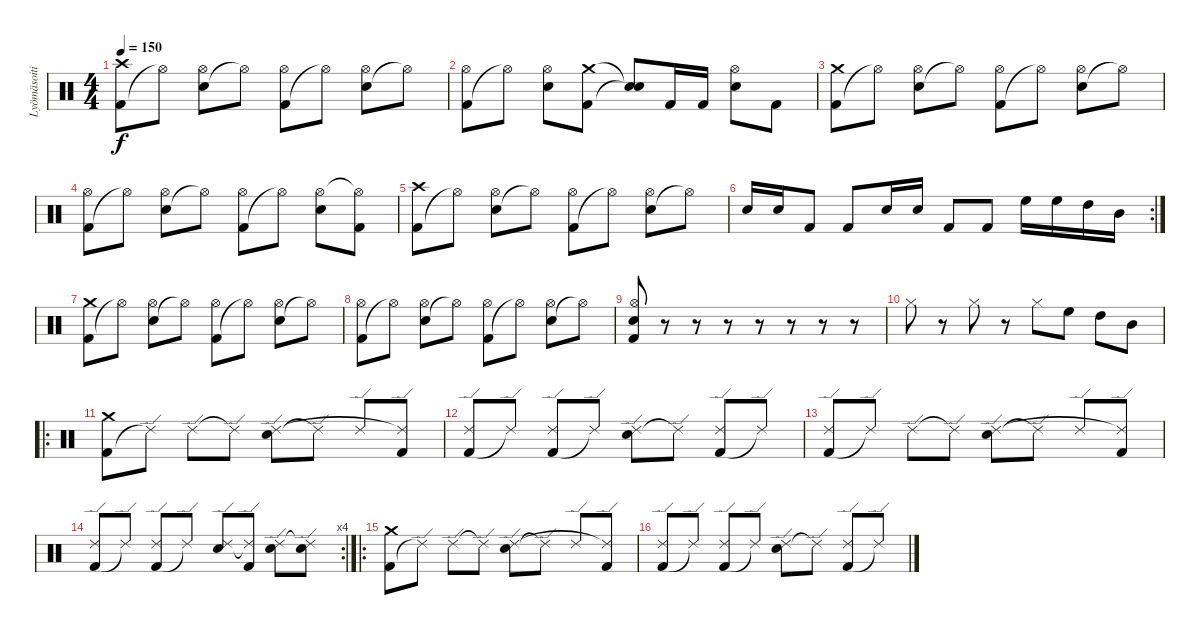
\track ("Lyömäsoitin" "Lyömäsoiti") {instrument percussion}
\staff {score}
\articulation defaults
\ts (4 4)
\tempo 150
\clef neutral
\ks c
("Kick (hit) 2" "Crash high (hit)").8{dy f} "Hi-Hat (open)"{t}.8 ("Electric Snare (hit)" "Hi-Hat (open)").8 "Hi-Hat (open)"{t}.8 ("Kick (hit) 2" "Hi-Hat (open)").8 "Hi-Hat (open)"{t}.8 ("Electric Snare (hit)" "Hi-Hat (open)").8 "Hi-Hat (open)"{t}.8 |
("Kick (hit) 2" "Hi-Hat (open)").8 "Hi-Hat (open)"{t}.8 ("Electric Snare (hit)" "Hi-Hat (open)").8 ("Kick (hit) 2" "Crash medium (hit)").8 ("Snare (hit)"{t} "Snare (hit)"{t}).8 "Kick (hit) 2".16 "Kick (hit) 2".16 ("Electric Snare (hit)" "Hi-Hat (open)").8 "Kick (hit) 2".8 |
("Kick (hit) 2" "Crash medium (hit)").8 "Hi-Hat (open)"{t}.8 ("Electric Snare (hit)" "Hi-Hat (open)").8 "Hi-Hat (open)"{t}.8 ("Kick (hit) 2" "Hi-Hat (open)").8 "Hi-Hat (open)"{t}.8 ("Electric Snare (hit)" "Hi-Hat (open)").8 "Hi-Hat (open)"{t}.8 |
("Kick (hit) 2" "Hi-Hat (open)").8 "Hi-Hat (open)"{t}.8 ("Electric Snare (hit)" "Hi-Hat (open)").8 "Hi-Hat (open)"{t}.8 ("Kick (hit) 2" "Hi-Hat (open)").8 "Hi-Hat (open)"{t}.8 ("Electric Snare (hit)" "Hi-Hat (open)").8 ("Kick (hit) 2" "Hi-Hat (open)"{t}).8 |
("Kick (hit) 2" "Crash high (hit)").8 "Hi-Hat (open)"{t}.8 ("Electric Snare (hit)" "Hi-Hat (open)").8 "Hi-Hat (open)"{t}.8 ("Kick (hit) 2" "Hi-Hat (open)").8 "Hi-Hat (open)"{t}.8 ("Electric Snare (hit)" "Hi-Hat (open)").8 "Hi-Hat (open)"{t}.8 |
\rc 2 "Electric Snare (hit)".16 "Electric Snare (hit)".16 "Kick (hit) 2".8 "Kick (hit) 2".8 "Electric Snare (hit)".16 "Electric Snare (hit)".16 "Kick (hit) 2".8 "Kick (hit) 2".8 "High Floor Tom (hit)".16 "High Floor Tom (hit)".16 "High Tom (hit)".16 "Mid Tom (hit)".16
|
("Kick (hit) 2" "Crash medium (hit)").8 "Hi-Hat (open)"{t}.8 ("Electric Snare (hit)" "Hi-Hat (open)").8 "Hi-Hat (open)"{t}.8 ("Kick (hit) 2" "Hi-Hat (open)").8 "Hi-Hat (open)"{t}.8 ("Electric Snare (hit)" "Hi-Hat (open)").8 "Hi-Hat (open)"{t}.8 |
("Kick (hit) 2" "Hi-Hat (open)").8 "Hi-Hat (open)"{t}.8 ("Electric Snare (hit)" "Hi-Hat (open)").8 "Hi-Hat (open)"{t}.8 ("Kick (hit) 2" "Hi-Hat (open)").8 "Hi-Hat (open)"{t}.8 ("Electric Snare (hit)" "Hi-Hat (open)").8 "Hi-Hat (open)"{t}.8 |
("Electric Snare (hit)" "Kick (hit) 2" "Hi-Hat (open)").8 r.8 r.8 r.8 r.8 r.8 r.8 r.8 |
"Hi-Hat (closed)".8 r.8 "Hi-Hat (closed)".8 r.8 "Hi-Hat (closed)".8 "High Floor Tom (hit)".8 "High Tom (hit)".8 "Mid Tom (hit)".8 |
\ro
("Kick (hit) 2" "Crash medium (hit)").8 "Ride (edge) 2"{t}.8 "Ride (edge) 2".8 "Ride (edge) 2"{t}.8 ("Electric Snare (hit)" "Ride (edge) 2").8 "Ride (edge) 2"{t}.8 "Ride (edge) 2".8 ("Kick (hit) 2" "Ride (edge) 2"{t}).8 |
("Kick (hit) 2" "Ride (edge) 2").8 "Ride (edge) 2"{t}.8 ("Kick (hit) 2" "Ride (edge) 2").8 "Ride (edge) 2"{t}.8 ("Electric Snare (hit)" "Ride (edge) 2").8 "Ride (edge) 2"{t}.8 ("Kick (hit) 2" "Ride (edge) 2").8 "Ride (edge) 2"{t}.8 |
("Kick (hit) 2" "Ride (edge) 2").8 "Ride (edge) 2"{t}.8 "Ride (edge) 2".8 "Ride (edge) 2"{t}.8 ("Electric Snare (hit)" "Ride (edge) 2").8 "Ride (edge) 2"{t}.8 "Ride (edge) 2".8 ("Kick (hit) 2" "Ride (edge) 2"{t}).8 |
\rc 4
("Kick (hit) 2" "Ride (edge) 2").8 "Ride (edge) 2"{t}.8 ("Kick (hit) 2" "Ride (edge) 2").8 "Ride (edge) 2"{t}.8 ("Electric Snare (hit)" "Ride (edge) 2").8 ("Kick (hit) 2" "Ride (edge) 2"{t}).8 ("Electric Snare (hit)" "Ride (edge) 2").8 ("Electric Snare (hit)" "Ride (edge) 2"{t}).8 |
\ro
("Kick (hit) 2" "Crash medium (hit)").8 "Ride (edge) 2"{t}.8 "Ride (edge) 2".8 "Ride (edge) 2"{t}.8 ("Electric Snare (hit)" "Ride (edge) 2").8 "Ride (edge) 2"{t}.8 "Ride (edge) 2".8 ("Kick (hit) 2" "Ride (edge) 2"{t}).8 |
("Kick (hit) 2" "Ride (edge) 2").8 "Ride (edge) 2"{t}.8 ("Kick (hit) 2" "Ride (edge) 2").8 "Ride (edge) 2"{t}.8 ("Electric Snare (hit)" "Ride (edge) 2").8 "Ride (edge) 2"{t}.8 ("Kick (hit) 2" "Ride (edge) 2").8 "Ride (edge) 2"{t}.8
